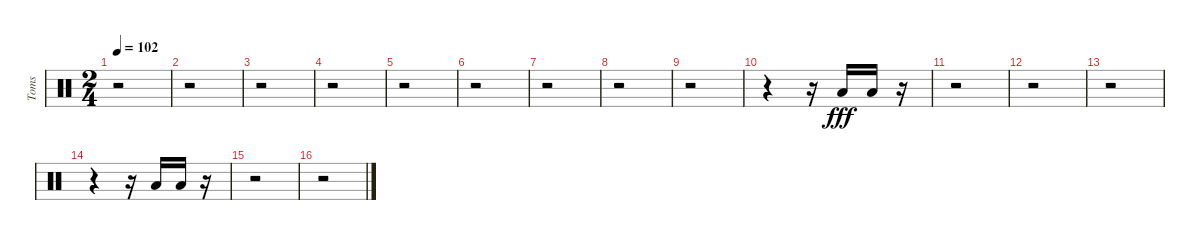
\track ("Toms" "Toms") {instrument percussion}
\staff {score}
\articulation defaults
\ts (2 4)
\tempo 102
\clef neutral
\ks c
r.2{dy fff} |
r.2 |
r.2 |
r.2 |
r.2 |
r.2 |
r.2 |
r.2 |
r.2 |
r.4 r.16 "Low Floor Tom (hit)".16 "Low Floor Tom (hit)".16 r.16 |
r.2 |
r.2 |
r.2 |
r.4 r.16 "Low Floor Tom (hit)".16 "Low Floor Tom (hit)".16 r.16 |
r.2 |
r.2
